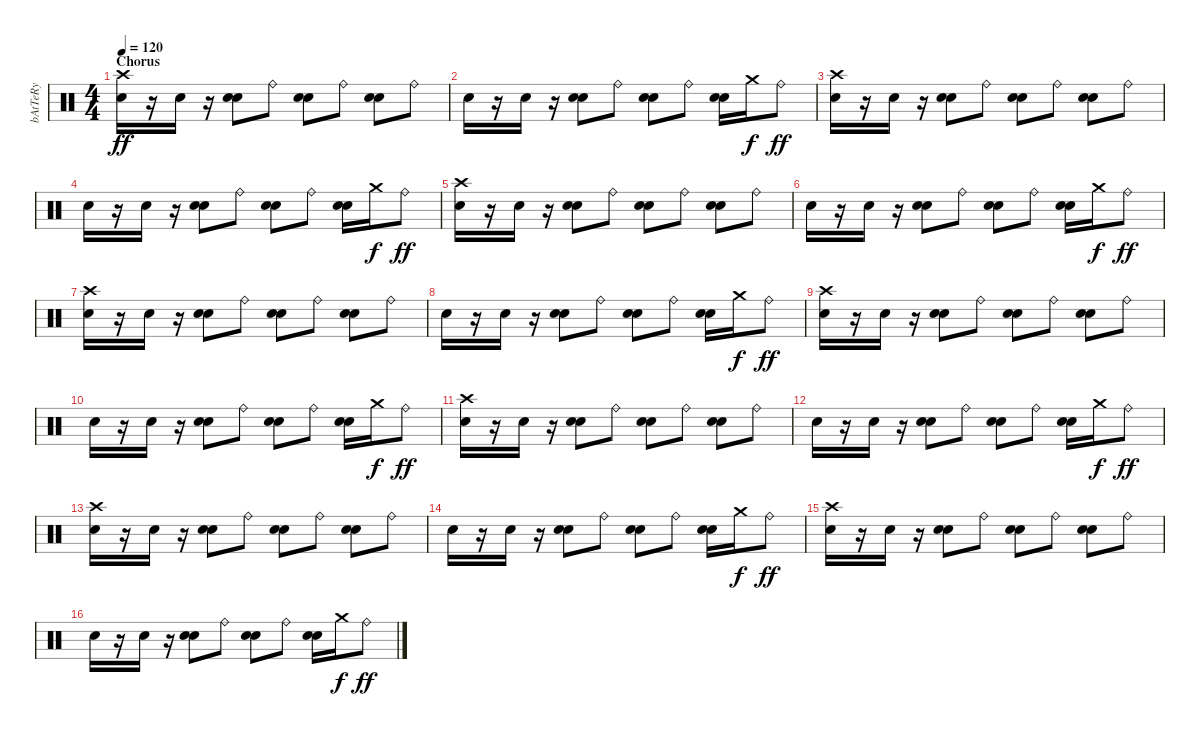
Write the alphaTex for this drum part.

\track ("bAtTeRy" "bAtTeRy") {instrument percussion}
\staff {score}
\articulation defaults
\ts (4 4)
\section ("" "Chorus")
\tempo 120
\clef neutral
\ks c
("Crash high (hit)" "Electric Snare (hit)").16{dy ff} r.16 "Electric Snare (hit)".16 r.16 ("Electric Snare (hit)" "Electric Snare (hit)").8{bd 480} "Ride (bell)".8 ("Electric Snare (hit)" "Electric Snare (hit)").8{bd 480} "Ride (bell)".8 ("Electric Snare (hit)" "Electric Snare (hit)").8{bd 480} "Ride (bell)".8 |
"Electric Snare (hit)".16 r.16 "Electric Snare (hit)".16 r.16 ("Electric Snare (hit)" "Electric Snare (hit)").8{bd 480} "Ride (bell)".8 ("Electric Snare (hit)" "Electric Snare (hit)").8{bd 480} "Ride (bell)".8 ("Electric Snare (hit)" "Electric Snare (hit)").16{bd 480} "Crash medium (hit)".16{dy f} "Ride (bell)".8{dy ff} |
("Crash high (hit)" "Electric Snare (hit)").16 r.16 "Electric Snare (hit)".16 r.16 ("Electric Snare (hit)" "Electric Snare (hit)").8{bd 480} "Ride (bell)".8 ("Electric Snare (hit)" "Electric Snare (hit)").8{bd 480} "Ride (bell)".8 ("Electric Snare (hit)" "Electric Snare (hit)").8{bd 480} "Ride (bell)".8 |
"Electric Snare (hit)".16 r.16 "Electric Snare (hit)".16 r.16 ("Electric Snare (hit)" "Electric Snare (hit)").8{bd 480} "Ride (bell)".8 ("Electric Snare (hit)" "Electric Snare (hit)").8{bd 480} "Ride (bell)".8 ("Electric Snare (hit)" "Electric Snare (hit)").16{bd 480} "Crash medium (hit)".16{dy f} "Ride (bell)".8{dy ff} |
("Crash high (hit)" "Electric Snare (hit)").16 r.16 "Electric Snare (hit)".16 r.16 ("Electric Snare (hit)" "Electric Snare (hit)").8{bd 480} "Ride (bell)".8 ("Electric Snare (hit)" "Electric Snare (hit)").8{bd 480} "Ride (bell)".8 ("Electric Snare (hit)" "Electric Snare (hit)").8{bd 480} "Ride (bell)".8 |
"Electric Snare (hit)".16 r.16 "Electric Snare (hit)".16 r.16 ("Electric Snare (hit)" "Electric Snare (hit)").8{bd 480} "Ride (bell)".8 ("Electric Snare (hit)" "Electric Snare (hit)").8{bd 480} "Ride (bell)".8 ("Electric Snare (hit)" "Electric Snare (hit)").16{bd 480} "Crash medium (hit)".16{dy f} "Ride (bell)".8{dy ff} |
("Crash high (hit)" "Electric Snare (hit)").16 r.16 "Electric Snare (hit)".16 r.16 ("Electric Snare (hit)" "Electric Snare (hit)").8{bd 480} "Ride (bell)".8 ("Electric Snare (hit)" "Electric Snare (hit)").8{bd 480} "Ride (bell)".8 ("Electric Snare (hit)" "Electric Snare (hit)").8{bd 480} "Ride (bell)".8 |
"Electric Snare (hit)".16 r.16 "Electric Snare (hit)".16 r.16 ("Electric Snare (hit)" "Electric Snare (hit)").8{bd 480} "Ride (bell)".8 ("Electric Snare (hit)" "Electric Snare (hit)").8{bd 480} "Ride (bell)".8 ("Electric Snare (hit)" "Electric Snare (hit)").16{bd 480} "Crash medium (hit)".16{dy f} "Ride (bell)".8{dy ff} |
("Crash high (hit)" "Electric Snare (hit)").16 r.16 "Electric Snare (hit)".16 r.16 ("Electric Snare (hit)" "Electric Snare (hit)").8{bd 480} "Ride (bell)".8 ("Electric Snare (hit)" "Electric Snare (hit)").8{bd 480} "Ride (bell)".8 ("Electric Snare (hit)" "Electric Snare (hit)").8{bd 480} "Ride (bell)".8 |
"Electric Snare (hit)".16 r.16 "Electric Snare (hit)".16 r.16 ("Electric Snare (hit)" "Electric Snare (hit)").8{bd 480} "Ride (bell)".8 ("Electric Snare (hit)" "Electric Snare (hit)").8{bd 480} "Ride (bell)".8 ("Electric Snare (hit)" "Electric Snare (hit)").16{bd 480} "Crash medium (hit)".16{dy f} "Ride (bell)".8{dy ff} |
("Crash high (hit)" "Electric Snare (hit)").16 r.16 "Electric Snare (hit)".16 r.16 ("Electric Snare (hit)" "Electric Snare (hit)").8{bd 480} "Ride (bell)".8 ("Electric Snare (hit)" "Electric Snare (hit)").8{bd 480} "Ride (bell)".8 ("Electric Snare (hit)" "Electric Snare (hit)").8{bd 480} "Ride (bell)".8 |
"Electric Snare (hit)".16 r.16 "Electric Snare (hit)".16 r.16 ("Electric Snare (hit)" "Electric Snare (hit)").8{bd 480} "Ride (bell)".8 ("Electric Snare (hit)" "Electric Snare (hit)").8{bd 480} "Ride (bell)".8 ("Electric Snare (hit)" "Electric Snare (hit)").16{bd 480} "Crash medium (hit)".16{dy f} "Ride (bell)".8{dy ff} |
("Crash high (hit)" "Electric Snare (hit)").16 r.16 "Electric Snare (hit)".16 r.16 ("Electric Snare (hit)" "Electric Snare (hit)").8{bd 480} "Ride (bell)".8 ("Electric Snare (hit)" "Electric Snare (hit)").8{bd 480} "Ride (bell)".8 ("Electric Snare (hit)" "Electric Snare (hit)").8{bd 480} "Ride (bell)".8 |
"Electric Snare (hit)".16 r.16 "Electric Snare (hit)".16 r.16 ("Electric Snare (hit)" "Electric Snare (hit)").8{bd 480} "Ride (bell)".8 ("Electric Snare (hit)" "Electric Snare (hit)").8{bd 480} "Ride (bell)".8 ("Electric Snare (hit)" "Electric Snare (hit)").16{bd 480} "Crash medium (hit)".16{dy f} "Ride (bell)".8{dy ff} |
("Crash high (hit)" "Electric Snare (hit)").16 r.16 "Electric Snare (hit)".16 r.16 ("Electric Snare (hit)" "Electric Snare (hit)").8{bd 480} "Ride (bell)".8 ("Electric Snare (hit)" "Electric Snare (hit)").8{bd 480} "Ride (bell)".8 ("Electric Snare (hit)" "Electric Snare (hit)").8{bd 480} "Ride (bell)".8 |
"Electric Snare (hit)".16 r.16 "Electric Snare (hit)".16 r.16 ("Electric Snare (hit)" "Electric Snare (hit)").8{bd 480} "Ride (bell)".8 ("Electric Snare (hit)" "Electric Snare (hit)").8{bd 480} "Ride (bell)".8 ("Electric Snare (hit)" "Electric Snare (hit)").16{bd 480} "Crash medium (hit)".16{dy f} "Ride (bell)".8{dy ff}
